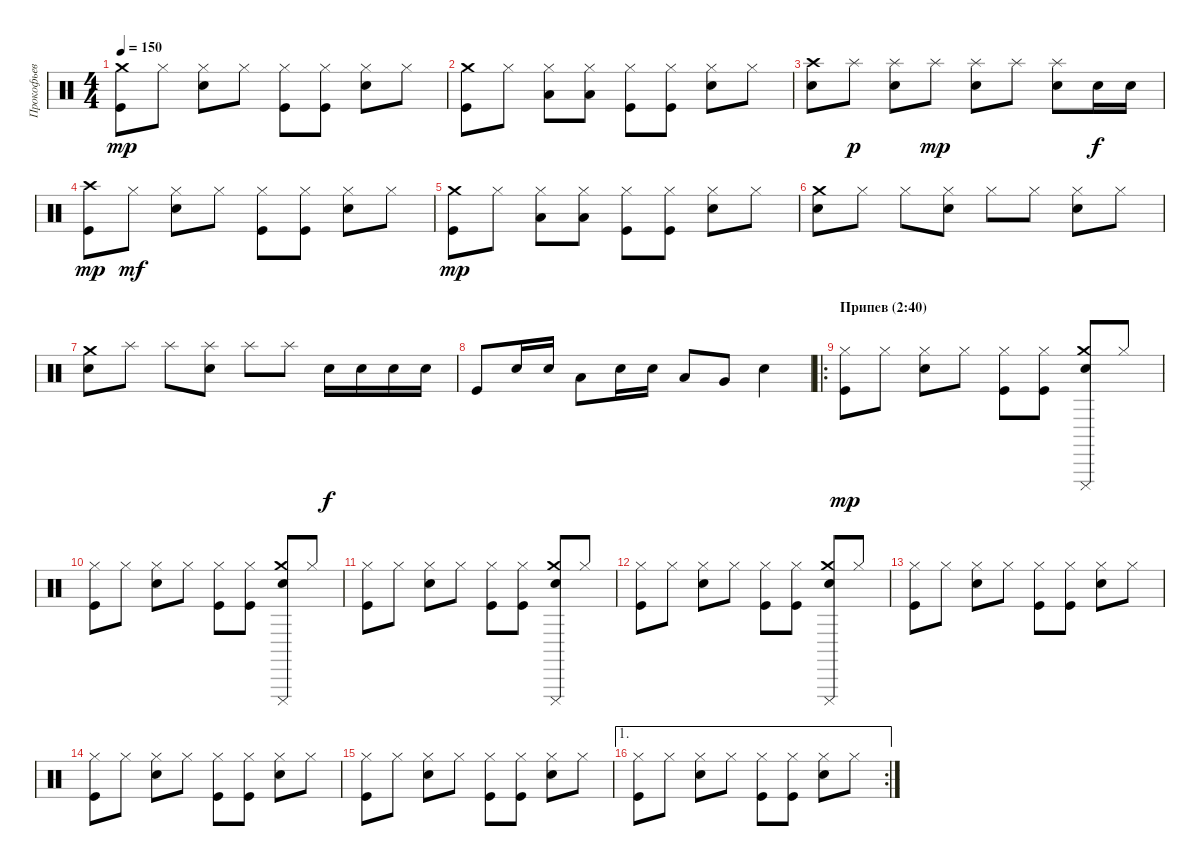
\track ("Прокофьев (Барабаны)" "Прокофьев ") {instrument percussion}
\staff {score}
\articulation defaults
\ts (4 4)
\tempo 150
\clef neutral
\ks c
("Crash medium (hit)" "Kick (hit)").8{dy mp} "Hi-Hat (closed)".8 ("Hi-Hat (closed)" "Electric Snare (hit)").8 "Hi-Hat (closed)".8 ("Hi-Hat (closed)" "Kick (hit)").8 ("Hi-Hat (closed)" "Kick (hit)").8 ("Hi-Hat (closed)" "Electric Snare (hit)").8 "Hi-Hat (closed)".8 |
("Crash medium (hit)" "Kick (hit)").8 "Hi-Hat (closed)".8 ("Hi-Hat (closed)" "Low Tom (hit)").8 ("Hi-Hat (closed)" "Low Tom (hit)").8 ("Hi-Hat (closed)" "Kick (hit)").8 ("Hi-Hat (closed)" "Kick (hit)").8 ("Hi-Hat (closed)" "Electric Snare (hit)").8 "Hi-Hat (closed)".8 |
("Crash high (hit)" "Electric Snare (hit)").8 "Splash (hit)".8{dy p} ("Splash (hit)" "Electric Snare (hit)").8 "Splash (hit)".8{dy mp} ("Splash (hit)" "Electric Snare (hit)").8 "Splash (hit)".8 ("Splash (hit)" "Electric Snare (hit)").8 "Electric Snare (hit)".16{dy f} "Electric Snare (hit)".16 |
("Crash high (hit)" "Kick (hit)").8{dy mp} "Hi-Hat (closed)".8{dy mf} ("Hi-Hat (closed)" "Electric Snare (hit)").8 "Hi-Hat (closed)".8 ("Hi-Hat (closed)" "Kick (hit)").8 ("Hi-Hat (closed)" "Kick (hit)").8 ("Hi-Hat (closed)" "Electric Snare (hit)").8 "Hi-Hat (closed)".8 |
("Crash medium (hit)" "Kick (hit)").8{dy mp} "Hi-Hat (closed)".8 ("Hi-Hat (closed)" "Low Tom (hit)").8 ("Hi-Hat (closed)" "Low Tom (hit)").8 ("Hi-Hat (closed)" "Kick (hit)").8 ("Hi-Hat (closed)" "Kick (hit)").8 ("Hi-Hat (closed)" "Electric Snare (hit)").8 "Hi-Hat (closed)".8 |
("Crash medium (hit)" "Electric Snare (hit)").8 "Hi-Hat (closed)".8 "Hi-Hat (closed)".8 ("Hi-Hat (closed)" "Electric Snare (hit)").8 "Hi-Hat (closed)".8 "Hi-Hat (closed)".8 ("Hi-Hat (closed)" "Electric Snare (hit)").8 "Hi-Hat (closed)".8 |
("Crash medium (hit)" "Electric Snare (hit)").8 "Splash (hit)".8 "Splash (hit)".8 ("Splash (hit)" "Electric Snare (hit)").8 "Splash (hit)".8 "Splash (hit)".8 "Electric Snare (hit)".16{dy f} "Electric Snare (hit)".16 "Electric Snare (hit)".16 "Electric Snare (hit)".16 |
"Kick (hit)".8 "Electric Snare (hit)".16 "Electric Snare (hit)".16 "Low Tom (hit)".8 "Electric Snare (hit)".16 "Electric Snare (hit)".16 "Low Tom (hit)".8 "Very Low Tom (hit)".8 "Electric Snare (hit)".4 |
\ro
\section ("" "Припев (2:40)")
("Hi-Hat (closed)" "Kick (hit)").8{dy mp} "Hi-Hat (closed)".8 ("Hi-Hat (closed)" "Electric Snare (hit)").8 "Hi-Hat (closed)".8 ("Hi-Hat (closed)" "Kick (hit)").8 ("Hi-Hat (closed)" "Kick (hit)").8 ("Crash medium (hit)" "Cuica (mute)" "Electric Snare (hit)").8 "Hi-Hat (closed)".8 |
("Hi-Hat (closed)" "Kick (hit)").8 "Hi-Hat (closed)".8 ("Hi-Hat (closed)" "Electric Snare (hit)").8 "Hi-Hat (closed)".8 ("Hi-Hat (closed)" "Kick (hit)").8 ("Hi-Hat (closed)" "Kick (hit)").8 ("Crash medium (hit)" "Cuica (mute)" "Electric Snare (hit)").8 "Hi-Hat (closed)".8 |
("Hi-Hat (closed)" "Kick (hit)").8 "Hi-Hat (closed)".8 ("Hi-Hat (closed)" "Electric Snare (hit)").8 "Hi-Hat (closed)".8 ("Hi-Hat (closed)" "Kick (hit)").8 ("Hi-Hat (closed)" "Kick (hit)").8 ("Crash medium (hit)" "Cuica (mute)" "Electric Snare (hit)").8 "Hi-Hat (closed)".8 |
("Hi-Hat (closed)" "Kick (hit)").8 "Hi-Hat (closed)".8 ("Hi-Hat (closed)" "Electric Snare (hit)").8 "Hi-Hat (closed)".8 ("Hi-Hat (closed)" "Kick (hit)").8 ("Hi-Hat (closed)" "Kick (hit)").8 ("Crash medium (hit)" "Cuica (mute)" "Electric Snare (hit)").8 "Hi-Hat (closed)".8 |
("Hi-Hat (closed)" "Kick (hit)").8 "Hi-Hat (closed)".8 ("Hi-Hat (closed)" "Electric Snare (hit)").8 "Hi-Hat (closed)".8 ("Hi-Hat (closed)" "Kick (hit)").8 ("Hi-Hat (closed)" "Kick (hit)").8 ("Hi-Hat (closed)" "Electric Snare (hit)").8 "Hi-Hat (closed)".8 |
("Hi-Hat (closed)" "Kick (hit)").8 "Hi-Hat (closed)".8 ("Hi-Hat (closed)" "Electric Snare (hit)").8 "Hi-Hat (closed)".8 ("Hi-Hat (closed)" "Kick (hit)").8 ("Hi-Hat (closed)" "Kick (hit)").8 ("Hi-Hat (closed)" "Electric Snare (hit)").8 "Hi-Hat (closed)".8 |
("Hi-Hat (closed)" "Kick (hit)").8 "Hi-Hat (closed)".8 ("Hi-Hat (closed)" "Electric Snare (hit)").8 "Hi-Hat (closed)".8 ("Hi-Hat (closed)" "Kick (hit)").8 ("Hi-Hat (closed)" "Kick (hit)").8 ("Hi-Hat (closed)" "Electric Snare (hit)").8 "Hi-Hat (closed)".8 |
\ae 1
\rc 2
("Hi-Hat (closed)" "Kick (hit)").8 "Hi-Hat (closed)".8 ("Hi-Hat (closed)" "Electric Snare (hit)").8 "Hi-Hat (closed)".8 ("Hi-Hat (closed)" "Kick (hit)").8 ("Hi-Hat (closed)" "Kick (hit)").8 ("Hi-Hat (closed)" "Electric Snare (hit)").8 "Hi-Hat (closed)".8
